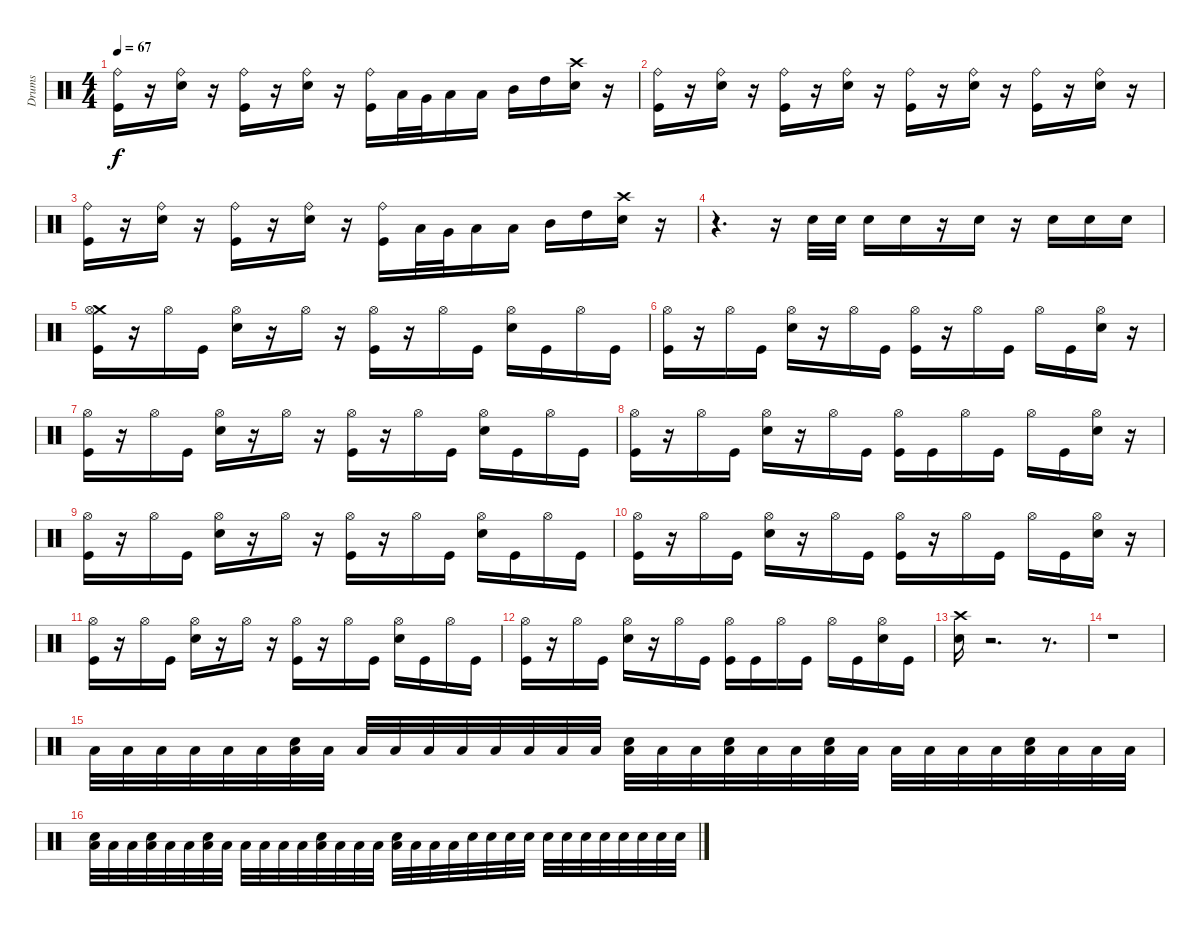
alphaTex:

\track ("Drums" "Drums") {instrument percussion}
\staff {score}
\articulation defaults
\ts (4 4)
\tempo 67
\clef neutral
\ks c
("Kick (hit)" "Ride (bell)").16{dy f} r.16 ("Ride (bell)" "Electric Snare (hit)").16 r.16 ("Ride (bell)" "Kick (hit)").16 r.16 ("Ride (bell)" "Electric Snare (hit)").16 r.16 ("Kick (hit)" "Ride (bell)").16 "Low Floor Tom (hit)".32 "Very Low Tom (hit)".32 "Low Tom (hit)".16 "Low Tom (hit)".16 "Mid Tom (hit)".16 "High Tom (hit)".16 ("Crash high (hit)" "Metronome (bell)").16 r.16 |
("Ride (bell)" "Kick (hit)").16 r.16 ("Ride (bell)" "Electric Snare (hit)").16 r.16 ("Kick (hit)" "Ride (bell)").16 r.16 ("Ride (bell)" "Electric Snare (hit)").16 r.16 ("Ride (bell)" "Kick (hit)").16 r.16 ("Ride (bell)" "Electric Snare (hit)").16 r.16 ("Ride (bell)" "Kick (hit)").16 r.16 ("Electric Snare (hit)" "Ride (bell)").16 r.16 |
("Kick (hit)" "Ride (bell)").16 r.16 ("Ride (bell)" "Electric Snare (hit)").16 r.16 ("Kick (hit)" "Ride (bell)").16 r.16 ("Ride (bell)" "Electric Snare (hit)").16 r.16 ("Ride (bell)" "Kick (hit)").16 "Low Floor Tom (hit)".32 "Very Low Tom (hit)".32 "Low Tom (hit)".16 "Low Tom (hit)".16 "Mid Tom (hit)".16 "High Tom (hit)".16 ("Metronome (bell)" "Crash high (hit)").16 r.16 |
r.4{d} r.16 "Snare (hit) 2".32 "Snare (hit) 2".32 "Snare (hit) 2".16 "Snare (hit) 2".16 r.16 "Snare (hit) 2".16 r.16 "Snare (hit) 2".16 "Snare (hit) 2".16 "Snare (hit) 2".16 |
("Kick (hit)" "Crash medium (hit)" "Hi-Hat (open)").16 r.16 "Hi-Hat (open)".16 "Kick (hit)".16 ("Hi-Hat (open)" "Snare (hit) 2").16 r.16 "Hi-Hat (open)".16 r.16 ("Hi-Hat (open)" "Kick (hit)").16 r.16 "Hi-Hat (open)".16 "Kick (hit)".16 ("Snare (hit) 2" "Hi-Hat (open)").16 "Kick (hit)".16 "Hi-Hat (open)".16 "Kick (hit)".16 |
("Kick (hit)" "Hi-Hat (open)").16 r.16 "Hi-Hat (open)".16 "Kick (hit)".16 ("Snare (hit) 2" "Hi-Hat (open)").16 r.16 "Hi-Hat (open)".16 "Kick (hit)".16 ("Hi-Hat (open)" "Kick (hit)").16 r.16 "Hi-Hat (open)".16 "Kick (hit)".16 "Hi-Hat (open)".16 "Kick (hit)".16 ("Snare (hit) 2" "Hi-Hat (open)").16 r.16 |
("Hi-Hat (open)" "Kick (hit)").16 r.16 "Hi-Hat (open)".16 "Kick (hit)".16 ("Hi-Hat (open)" "Snare (hit) 2").16 r.16 "Hi-Hat (open)".16 r.16 ("Kick (hit)" "Hi-Hat (open)").16 r.16 "Hi-Hat (open)".16 "Kick (hit)".16 ("Snare (hit) 2" "Hi-Hat (open)").16 "Kick (hit)".16 "Hi-Hat (open)".16 "Kick (hit)".16 |
("Kick (hit)" "Hi-Hat (open)").16 r.16 "Hi-Hat (open)".16 "Kick (hit)".16 ("Hi-Hat (open)" "Snare (hit) 2").16 r.16 "Hi-Hat (open)".16 "Kick (hit)".16 ("Kick (hit)" "Hi-Hat (open)").16 "Kick (hit)".16 "Hi-Hat (open)".16 "Kick (hit)".16 "Hi-Hat (open)".16 "Kick (hit)".16 ("Hi-Hat (open)" "Snare (hit) 2").16 r.16 |
("Kick (hit)" "Hi-Hat (open)").16 r.16 "Hi-Hat (open)".16 "Kick (hit)".16 ("Hi-Hat (open)" "Snare (hit) 2").16 r.16 "Hi-Hat (open)".16 r.16 ("Kick (hit)" "Hi-Hat (open)").16 r.16 "Hi-Hat (open)".16 "Kick (hit)".16 ("Hi-Hat (open)" "Snare (hit) 2").16 "Kick (hit)".16 "Hi-Hat (open)".16 "Kick (hit)".16 |
("Kick (hit)" "Hi-Hat (open)").16 r.16 "Hi-Hat (open)".16 "Kick (hit)".16 ("Snare (hit) 2" "Hi-Hat (open)").16 r.16 "Hi-Hat (open)".16 "Kick (hit)".16 ("Hi-Hat (open)" "Kick (hit)").16 r.16 "Hi-Hat (open)".16 "Kick (hit)".16 "Hi-Hat (open)".16 "Kick (hit)".16 ("Hi-Hat (open)" "Snare (hit) 2").16 r.16 |
("Hi-Hat (open)" "Kick (hit)").16 r.16 "Hi-Hat (open)".16 "Kick (hit)".16 ("Hi-Hat (open)" "Snare (hit) 2").16 r.16 "Hi-Hat (open)".16 r.16 ("Hi-Hat (open)" "Kick (hit)").16 r.16 "Hi-Hat (open)".16 "Kick (hit)".16 ("Snare (hit) 2" "Hi-Hat (open)").16 "Kick (hit)".16 "Hi-Hat (open)".16 "Kick (hit)".16 |
("Hi-Hat (open)" "Kick (hit)").16 r.16 "Hi-Hat (open)".16 "Kick (hit)".16 ("Snare (hit) 2" "Hi-Hat (open)").16 r.16 "Hi-Hat (open)".16 "Kick (hit)".16 ("Kick (hit)" "Hi-Hat (open)").16 "Kick (hit)".16 "Hi-Hat (open)".16 "Kick (hit)".16 "Hi-Hat (open)".16 "Kick (hit)".16 ("Snare (hit) 2" "Hi-Hat (open)").16 "Kick (hit)".16 |
("Snare (hit) 2" "Crash high (hit)").16 r.2{d} r.8{d} |
r.1 |
"Low Tom (hit)".32 "Low Tom (hit)".32 "Low Tom (hit)".32 "Low Tom (hit)".32 "Low Tom (hit)".32 "Low Tom (hit)".32 ("Low Tom (hit)" "Metronome (bell)").32 "Low Tom (hit)".32 "Low Tom (hit)".32 "Low Tom (hit)".32 "Low Tom (hit)".32 "Low Tom (hit)".32 "Low Tom (hit)".32 "Low Tom (hit)".32 "Low Tom (hit)".32 "Low Tom (hit)".32 ("Metronome (bell)" "Low Tom (hit)").32 "Low Tom (hit)".32 "Low Tom (hit)".32 ("Low Tom (hit)" "Metronome (bell)").32 "Low Tom (hit)".32 "Low Tom (hit)".32 ("Low Tom (hit)" "Metronome (bell)").32 "Low Tom (hit)".32 "Low Tom (hit)".32 "Low Tom (hit)".32 "Low Tom (hit)".32 "Low Tom (hit)".32 ("Low Tom (hit)" "Metronome (bell)").32 "Low Tom (hit)".32 "Low Tom (hit)".32 "Low Tom (hit)".32 |
("Metronome (bell)" "Low Tom (hit)").32 "Low Tom (hit)".32 "Low Tom (hit)".32 ("Low Tom (hit)" "Metronome (bell)").32 "Low Tom (hit)".32 "Low Tom (hit)".32 ("Low Tom (hit)" "Metronome (bell)").32 "Low Tom (hit)".32 "Low Tom (hit)".32 "Low Tom (hit)".32 "Low Tom (hit)".32 "Low Tom (hit)".32 ("Metronome (bell)" "Low Tom (hit)").32 "Low Tom (hit)".32 "Low Tom (hit)".32 "Low Tom (hit)".32 ("Low Tom (hit)" "Metronome (bell)").32 "Low Tom (hit)".32 "Low Tom (hit)".32 "Low Tom (hit)".32 "Metronome (bell)".32 "Metronome (bell)".32 "Metronome (bell)".32 "Metronome (bell)".32 "Metronome (bell)".32 "Metronome (bell)".32 "Metronome (bell)".32 "Metronome (bell)".32 "Metronome (bell)".32 "Metronome (bell)".32 "Metronome (bell)".32 "Metronome (bell)".32
